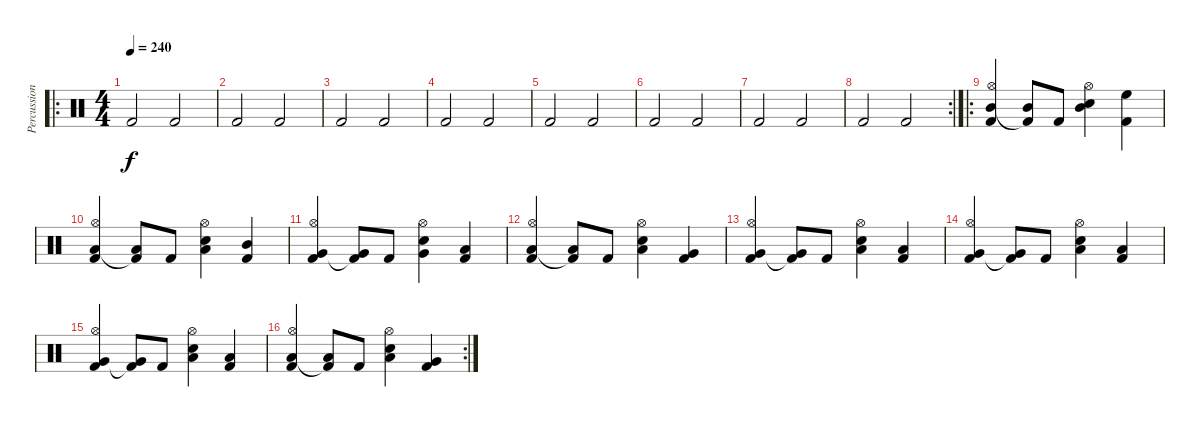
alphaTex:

\track ("Percussion" "Percussion") {instrument percussion}
\staff {score}
\articulation defaults
\ro
\ts (4 4)
\tempo 240
\clef neutral
\ks c "Kick (hit) 2".2{dy f} "Kick (hit) 2".2
|
"Kick (hit) 2".2 "Kick (hit) 2".2 |
"Kick (hit) 2".2 "Kick (hit) 2".2 |
"Kick (hit) 2".2 "Kick (hit) 2".2 |
"Kick (hit) 2".2 "Kick (hit) 2".2 |
"Kick (hit) 2".2 "Kick (hit) 2".2 |
"Kick (hit) 2".2 "Kick (hit) 2".2 |
\rc 2 "Kick (hit) 2".2 "Kick (hit) 2".2
|
\ro
("Hi-Hat (open)" "Mid Tom (hit)" "Kick (hit) 2").4 ("Mid Tom (hit)" "Kick (hit) 2"{t}).8 "Kick (hit) 2".8 ("Hi-Hat (open)" "Mid Tom (hit)" "Snare (hit) 2").4 ("High Floor Tom (hit)" "Kick (hit) 2").4 |
("Hi-Hat (open)" "Low Tom (hit)" "Kick (hit) 2").4 ("Low Tom (hit)" "Kick (hit) 2"{t}).8 "Kick (hit) 2".8 ("Hi-Hat (open)" "Low Tom (hit)" "Snare (hit) 2").4 ("Mid Tom (hit)" "Kick (hit) 2").4 |
("Hi-Hat (open)" "Very Low Tom (hit)" "Kick (hit) 2").4 ("Very Low Tom (hit)" "Kick (hit) 2"{t}).8 "Kick (hit) 2".8 ("Hi-Hat (open)" "Very Low Tom (hit)" "Snare (hit) 2").4 ("Low Tom (hit)" "Kick (hit) 2").4 |
("Hi-Hat (open)" "Low Floor Tom (hit)" "Kick (hit) 2").4 ("Low Floor Tom (hit)" "Kick (hit) 2"{t}).8 "Kick (hit) 2".8 ("Hi-Hat (open)" "Low Floor Tom (hit)" "Snare (hit) 2").4 ("Very Low Tom (hit)" "Kick (hit) 2").4 |
("Hi-Hat (open)" "Very Low Tom (hit)" "Kick (hit) 2").4 ("Very Low Tom (hit)" "Kick (hit) 2"{t}).8 "Kick (hit) 2".8 ("Hi-Hat (open)" "Low Floor Tom (hit)" "Snare (hit) 2").4 ("Low Tom (hit)" "Kick (hit) 2").4 |
("Hi-Hat (open)" "Very Low Tom (hit)" "Kick (hit) 2").4 ("Very Low Tom (hit)" "Kick (hit) 2"{t}).8 "Kick (hit) 2".8 ("Hi-Hat (open)" "Low Floor Tom (hit)" "Snare (hit) 2").4 ("Low Tom (hit)" "Kick (hit) 2").4 |
("Hi-Hat (open)" "Very Low Tom (hit)" "Kick (hit) 2").4 ("Very Low Tom (hit)" "Kick (hit) 2"{t}).8 "Kick (hit) 2".8 ("Hi-Hat (open)" "Low Floor Tom (hit)" "Snare (hit) 2").4 ("Low Tom (hit)" "Kick (hit) 2").4 |
\rc 2
("Hi-Hat (open)" "Low Floor Tom (hit)" "Kick (hit) 2").4 ("Low Floor Tom (hit)" "Kick (hit) 2"{t}).8 "Kick (hit) 2".8 ("Hi-Hat (open)" "Low Floor Tom (hit)" "Snare (hit) 2").4 ("Very Low Tom (hit)" "Kick (hit) 2").4
